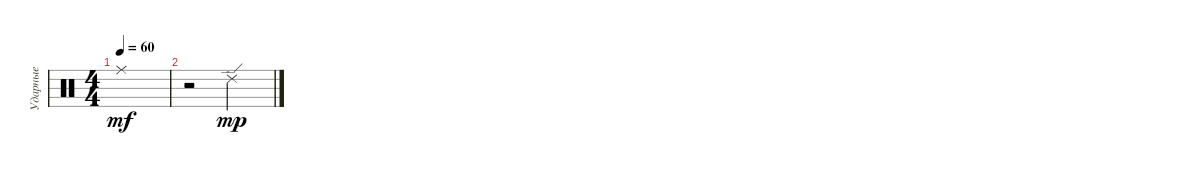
\track ("Ударные" "Ударные") {instrument percussion}
\staff {score}
\articulation defaults
\ts (4 4)
\tempo 60
\clef neutral
\ks c "Ride (middle)".1{dy mf}
|
r.2 "Ride (edge) 2".2{dy mp}
